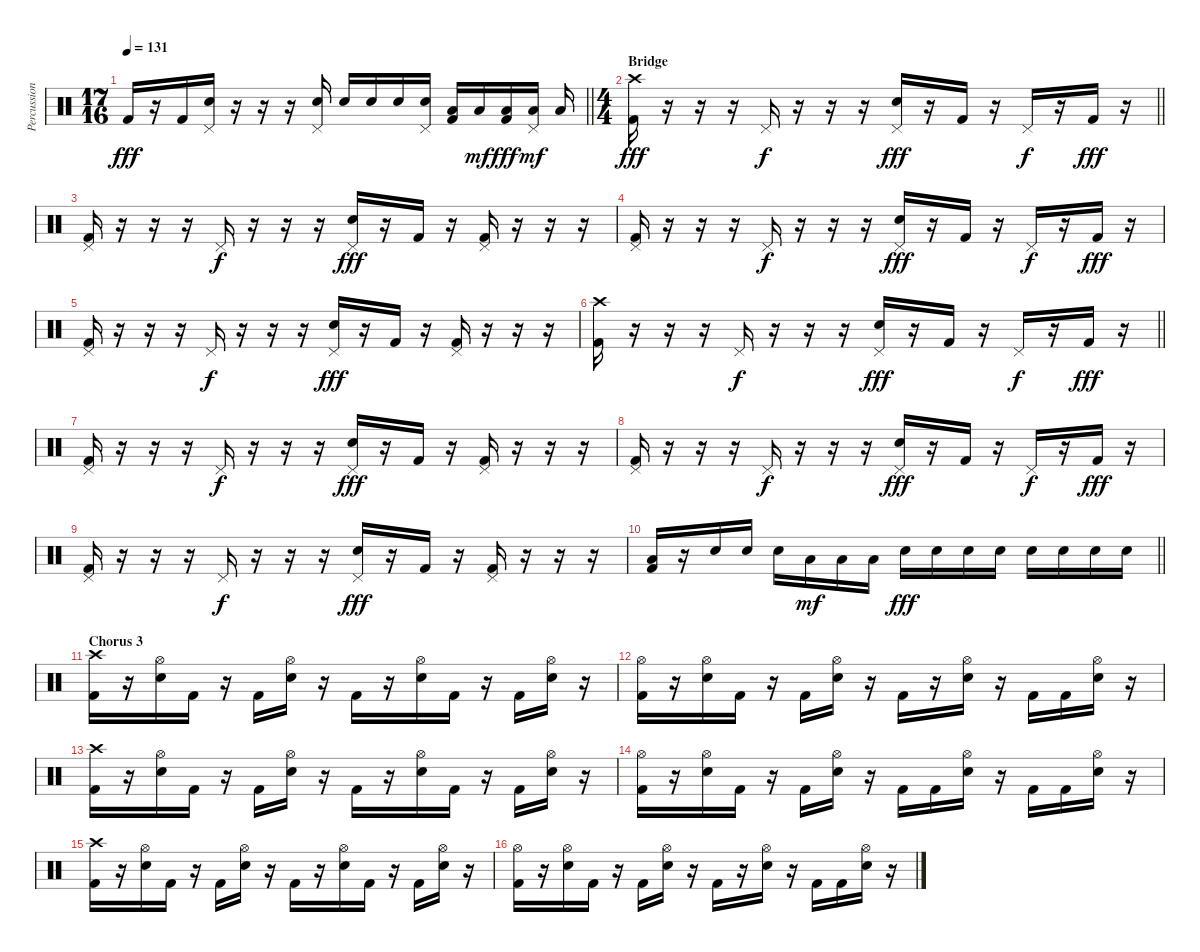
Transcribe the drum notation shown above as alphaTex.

\track ("Percussion" "Percussion") {instrument percussion}
\staff {score}
\articulation defaults
\ts (17 16)
\tempo 131
\clef neutral
\barLineRight lightlight
\ks c "Kick (hit) 2".16{dy fff}
r.16 "Kick (hit) 2".16 ("Pedal Hi-Hat (hit)" "Snare (hit) 2").16 r.16 r.16 r.16 ("Pedal Hi-Hat (hit)" "Snare (hit) 2").16 "Snare (hit) 2".16 "Snare (hit) 2".16 "Snare (hit) 2".16 ("Pedal Hi-Hat (hit)" "Snare (hit) 2").16 ("Low Tom (hit)" "Kick (hit) 2").16 "Low Tom (hit)".16{dy mf} ("Low Tom (hit)" "Kick (hit) 2").16{dy fff} ("Pedal Hi-Hat (hit)" "Low Floor Tom (hit)").16{dy mf} "Low Floor Tom (hit)".16 |
\ts (4 4)
\section ("" "Bridge")
\barLineRight lightlight
("Crash high (hit)" "Kick (hit) 2").16{dy fff} r.16 r.16 r.16 "Pedal Hi-Hat (hit)".16{dy f} r.16 r.16 r.16 ("Pedal Hi-Hat (hit)" "Snare (hit) 2").16{dy fff} r.16 "Kick (hit) 2".16 r.16 "Pedal Hi-Hat (hit)".16{dy f} r.16 "Kick (hit) 2".16{dy fff} r.16 |
("Pedal Hi-Hat (hit)" "Kick (hit) 2").16 r.16 r.16 r.16 "Pedal Hi-Hat (hit)".16{dy f} r.16 r.16 r.16 ("Pedal Hi-Hat (hit)" "Snare (hit) 2").16{dy fff} r.16 "Kick (hit) 2".16 r.16 ("Pedal Hi-Hat (hit)" "Kick (hit) 2").16 r.16 r.16 r.16 |
("Pedal Hi-Hat (hit)" "Kick (hit) 2").16 r.16 r.16 r.16 "Pedal Hi-Hat (hit)".16{dy f} r.16 r.16 r.16 ("Pedal Hi-Hat (hit)" "Snare (hit) 2").16{dy fff} r.16 "Kick (hit) 2".16 r.16 "Pedal Hi-Hat (hit)".16{dy f} r.16 "Kick (hit) 2".16{dy fff} r.16 |
("Pedal Hi-Hat (hit)" "Kick (hit) 2").16 r.16 r.16 r.16 "Pedal Hi-Hat (hit)".16{dy f} r.16 r.16 r.16 ("Pedal Hi-Hat (hit)" "Snare (hit) 2").16{dy fff} r.16 "Kick (hit) 2".16 r.16 ("Pedal Hi-Hat (hit)" "Kick (hit) 2").16 r.16 r.16 r.16 |
\barLineRight lightlight
("Crash high (hit)" "Kick (hit) 2").16 r.16 r.16 r.16 "Pedal Hi-Hat (hit)".16{dy f} r.16 r.16 r.16 ("Pedal Hi-Hat (hit)" "Snare (hit) 2").16{dy fff} r.16 "Kick (hit) 2".16 r.16 "Pedal Hi-Hat (hit)".16{dy f} r.16 "Kick (hit) 2".16{dy fff} r.16 |
("Pedal Hi-Hat (hit)" "Kick (hit) 2").16 r.16 r.16 r.16 "Pedal Hi-Hat (hit)".16{dy f} r.16 r.16 r.16 ("Pedal Hi-Hat (hit)" "Snare (hit) 2").16{dy fff} r.16 "Kick (hit) 2".16 r.16 ("Pedal Hi-Hat (hit)" "Kick (hit) 2").16 r.16 r.16 r.16 |
("Pedal Hi-Hat (hit)" "Kick (hit) 2").16 r.16 r.16 r.16 "Pedal Hi-Hat (hit)".16{dy f} r.16 r.16 r.16 ("Pedal Hi-Hat (hit)" "Snare (hit) 2").16{dy fff} r.16 "Kick (hit) 2".16 r.16 "Pedal Hi-Hat (hit)".16{dy f} r.16 "Kick (hit) 2".16{dy fff} r.16 |
("Pedal Hi-Hat (hit)" "Kick (hit) 2").16 r.16 r.16 r.16 "Pedal Hi-Hat (hit)".16{dy f} r.16 r.16 r.16 ("Pedal Hi-Hat (hit)" "Snare (hit) 2").16{dy fff} r.16 "Kick (hit) 2".16 r.16 ("Pedal Hi-Hat (hit)" "Kick (hit) 2").16 r.16 r.16 r.16 |
\barLineRight lightlight
("Low Tom (hit)" "Kick (hit) 2").16 r.16 "Snare (hit) 2".16 "Snare (hit) 2".16 "Snare (hit) 2".16 "Low Tom (hit)".16{dy mf} "Low Tom (hit)".16 "Low Tom (hit)".16 "Snare (hit) 2".16{dy fff} "Snare (hit) 2".16 "Snare (hit) 2".16 "Snare (hit) 2".16 "Snare (hit) 2".16 "Snare (hit) 2".16 "Snare (hit) 2".16 "Snare (hit) 2".16 |
\section ("" "Chorus 3")
("Crash high (hit)" "Kick (hit) 2").16 r.16 ("Hi-Hat (open)" "Snare (hit) 2").16 "Kick (hit) 2".16 r.16 "Kick (hit) 2".16 ("Hi-Hat (open)" "Snare (hit) 2").16 r.16 "Kick (hit) 2".16 r.16 ("Hi-Hat (open)" "Snare (hit) 2").16 "Kick (hit) 2".16 r.16 "Kick (hit) 2".16 ("Hi-Hat (open)" "Snare (hit) 2").16 r.16 |
("Hi-Hat (open)" "Kick (hit) 2").16 r.16 ("Hi-Hat (open)" "Snare (hit) 2").16 "Kick (hit) 2".16 r.16 "Kick (hit) 2".16 ("Hi-Hat (open)" "Snare (hit) 2").16 r.16 "Kick (hit) 2".16 r.16 ("Hi-Hat (open)" "Snare (hit) 2").16 r.16 "Kick (hit) 2".16 "Kick (hit) 2".16 ("Hi-Hat (open)" "Snare (hit) 2").16 r.16 |
("Crash high (hit)" "Kick (hit) 2").16 r.16 ("Hi-Hat (open)" "Snare (hit) 2").16 "Kick (hit) 2".16 r.16 "Kick (hit) 2".16 ("Hi-Hat (open)" "Snare (hit) 2").16 r.16 "Kick (hit) 2".16 r.16 ("Hi-Hat (open)" "Snare (hit) 2").16 "Kick (hit) 2".16 r.16 "Kick (hit) 2".16 ("Hi-Hat (open)" "Snare (hit) 2").16 r.16 |
("Hi-Hat (open)" "Kick (hit) 2").16 r.16 ("Hi-Hat (open)" "Snare (hit) 2").16 "Kick (hit) 2".16 r.16 "Kick (hit) 2".16 ("Hi-Hat (open)" "Snare (hit) 2").16 r.16 "Kick (hit) 2".16 "Kick (hit) 2".16 ("Hi-Hat (open)" "Snare (hit) 2").16 r.16 "Kick (hit) 2".16 "Kick (hit) 2".16 ("Hi-Hat (open)" "Snare (hit) 2").16 r.16 |
("Crash high (hit)" "Kick (hit) 2").16 r.16 ("Hi-Hat (open)" "Snare (hit) 2").16 "Kick (hit) 2".16 r.16 "Kick (hit) 2".16 ("Hi-Hat (open)" "Snare (hit) 2").16 r.16 "Kick (hit) 2".16 r.16 ("Hi-Hat (open)" "Snare (hit) 2").16 "Kick (hit) 2".16 r.16 "Kick (hit) 2".16 ("Hi-Hat (open)" "Snare (hit) 2").16 r.16 |
("Hi-Hat (open)" "Kick (hit) 2").16 r.16 ("Hi-Hat (open)" "Snare (hit) 2").16 "Kick (hit) 2".16 r.16 "Kick (hit) 2".16 ("Hi-Hat (open)" "Snare (hit) 2").16 r.16 "Kick (hit) 2".16 r.16 ("Hi-Hat (open)" "Snare (hit) 2").16 r.16 "Kick (hit) 2".16 "Kick (hit) 2".16 ("Hi-Hat (open)" "Snare (hit) 2").16 r.16
